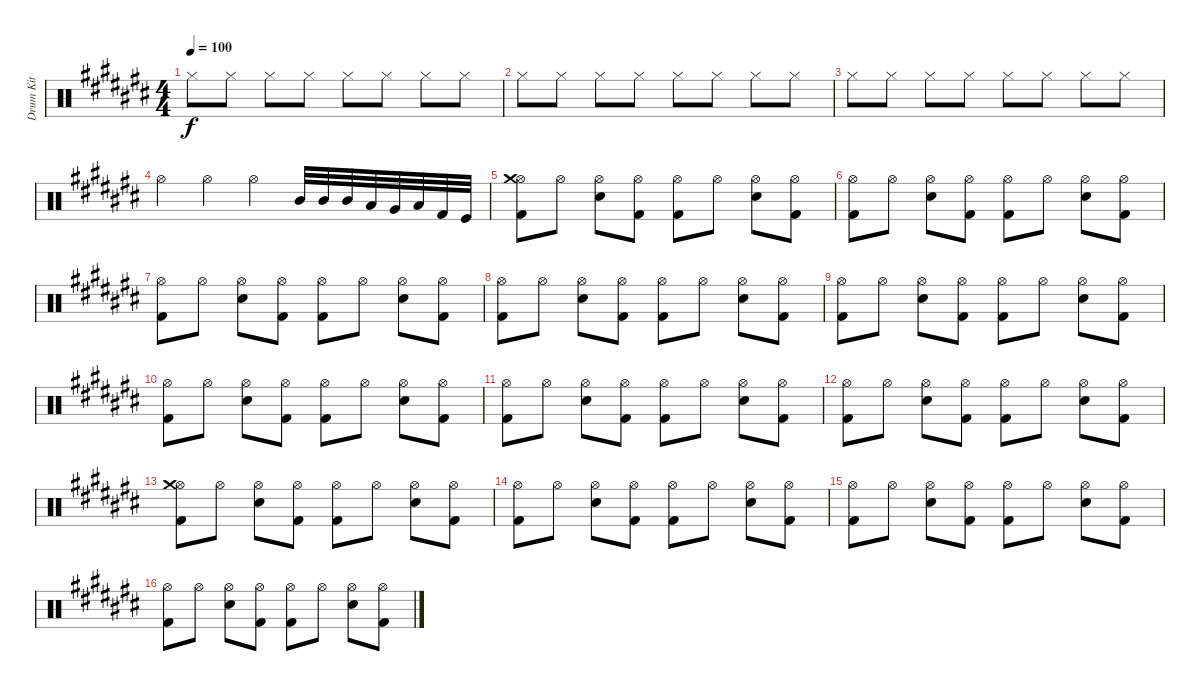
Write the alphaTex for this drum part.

\track ("Drum Kit" "Drum Kit") {instrument percussion}
\staff {score}
\articulation defaults
\ts (4 4)
\tempo 100
\clef neutral
\ks c# "Hi-Hat (closed)".8{dy f} "Hi-Hat (closed)".8 "Hi-Hat (closed)".8 "Hi-Hat (closed)".8 "Hi-Hat (closed)".8 "Hi-Hat (closed)".8 "Hi-Hat (closed)".8 "Hi-Hat (closed)".8
|
"Hi-Hat (closed)".8 "Hi-Hat (closed)".8 "Hi-Hat (closed)".8 "Hi-Hat (closed)".8 "Hi-Hat (closed)".8 "Hi-Hat (closed)".8 "Hi-Hat (closed)".8 "Hi-Hat (closed)".8 |
"Hi-Hat (closed)".8 "Hi-Hat (closed)".8 "Hi-Hat (closed)".8 "Hi-Hat (closed)".8 "Hi-Hat (closed)".8 "Hi-Hat (closed)".8 "Hi-Hat (closed)".8 "Hi-Hat (closed)".8 |
"Hi-Hat (open)".4 "Hi-Hat (open)".4 "Hi-Hat (open)".4 "Mid Tom (hit)".32 "Mid Tom (hit)".32 "Mid Tom (hit)".32 "Low Tom (hit)".32 "Very Low Tom (hit)".32 "Low Floor Tom (hit)".32 "Kick (hit) 2".32 "Kick (hit)".32 |
("Hi-Hat (open)" "Crash medium (hit)" "Kick (hit) 2").8 "Hi-Hat (open)".8 ("Hi-Hat (open)" "Snare (hit) 2").8 ("Hi-Hat (open)" "Kick (hit) 2").8 ("Hi-Hat (open)" "Kick (hit) 2").8 "Hi-Hat (open)".8 ("Hi-Hat (open)" "Snare (hit) 2").8 ("Hi-Hat (open)" "Kick (hit) 2").8 |
("Hi-Hat (open)" "Kick (hit) 2").8 "Hi-Hat (open)".8 ("Hi-Hat (open)" "Snare (hit) 2").8 ("Hi-Hat (open)" "Kick (hit) 2").8 ("Hi-Hat (open)" "Kick (hit) 2").8 "Hi-Hat (open)".8 ("Hi-Hat (open)" "Snare (hit) 2").8 ("Hi-Hat (open)" "Kick (hit) 2").8 |
("Hi-Hat (open)" "Kick (hit) 2").8 "Hi-Hat (open)".8 ("Hi-Hat (open)" "Snare (hit) 2").8 ("Hi-Hat (open)" "Kick (hit) 2").8 ("Hi-Hat (open)" "Kick (hit) 2").8 "Hi-Hat (open)".8 ("Hi-Hat (open)" "Snare (hit) 2").8 ("Hi-Hat (open)" "Kick (hit) 2").8 |
("Hi-Hat (open)" "Kick (hit) 2").8 "Hi-Hat (open)".8 ("Hi-Hat (open)" "Snare (hit) 2").8 ("Hi-Hat (open)" "Kick (hit) 2").8 ("Hi-Hat (open)" "Kick (hit) 2").8 "Hi-Hat (open)".8 ("Hi-Hat (open)" "Snare (hit) 2").8 ("Hi-Hat (open)" "Kick (hit) 2").8 |
("Hi-Hat (open)" "Kick (hit) 2").8 "Hi-Hat (open)".8 ("Hi-Hat (open)" "Snare (hit) 2").8 ("Hi-Hat (open)" "Kick (hit) 2").8 ("Hi-Hat (open)" "Kick (hit) 2").8 "Hi-Hat (open)".8 ("Hi-Hat (open)" "Snare (hit) 2").8 ("Hi-Hat (open)" "Kick (hit) 2").8 |
("Hi-Hat (open)" "Kick (hit) 2").8 "Hi-Hat (open)".8 ("Hi-Hat (open)" "Snare (hit) 2").8 ("Hi-Hat (open)" "Kick (hit) 2").8 ("Hi-Hat (open)" "Kick (hit) 2").8 "Hi-Hat (open)".8 ("Hi-Hat (open)" "Snare (hit) 2").8 ("Hi-Hat (open)" "Kick (hit) 2").8 |
("Hi-Hat (open)" "Kick (hit) 2").8 "Hi-Hat (open)".8 ("Hi-Hat (open)" "Snare (hit) 2").8 ("Hi-Hat (open)" "Kick (hit) 2").8 ("Hi-Hat (open)" "Kick (hit) 2").8 "Hi-Hat (open)".8 ("Hi-Hat (open)" "Snare (hit) 2").8 ("Hi-Hat (open)" "Kick (hit) 2").8 |
("Hi-Hat (open)" "Kick (hit) 2").8 "Hi-Hat (open)".8 ("Hi-Hat (open)" "Snare (hit) 2").8 ("Hi-Hat (open)" "Kick (hit) 2").8 ("Hi-Hat (open)" "Kick (hit) 2").8 "Hi-Hat (open)".8 ("Hi-Hat (open)" "Snare (hit) 2").8 ("Hi-Hat (open)" "Kick (hit) 2").8 |
("Hi-Hat (open)" "Crash medium (hit)" "Kick (hit) 2").8 "Hi-Hat (open)".8 ("Hi-Hat (open)" "Snare (hit) 2").8 ("Hi-Hat (open)" "Kick (hit) 2").8 ("Hi-Hat (open)" "Kick (hit) 2").8 "Hi-Hat (open)".8 ("Hi-Hat (open)" "Snare (hit) 2").8 ("Hi-Hat (open)" "Kick (hit) 2").8 |
("Hi-Hat (open)" "Kick (hit) 2").8 "Hi-Hat (open)".8 ("Hi-Hat (open)" "Snare (hit) 2").8 ("Hi-Hat (open)" "Kick (hit) 2").8 ("Hi-Hat (open)" "Kick (hit) 2").8 "Hi-Hat (open)".8 ("Hi-Hat (open)" "Snare (hit) 2").8 ("Hi-Hat (open)" "Kick (hit) 2").8 |
("Hi-Hat (open)" "Kick (hit) 2").8 "Hi-Hat (open)".8 ("Hi-Hat (open)" "Snare (hit) 2").8 ("Hi-Hat (open)" "Kick (hit) 2").8 ("Hi-Hat (open)" "Kick (hit) 2").8 "Hi-Hat (open)".8 ("Hi-Hat (open)" "Snare (hit) 2").8 ("Hi-Hat (open)" "Kick (hit) 2").8 |
("Hi-Hat (open)" "Kick (hit) 2").8 "Hi-Hat (open)".8 ("Hi-Hat (open)" "Snare (hit) 2").8 ("Hi-Hat (open)" "Kick (hit) 2").8 ("Hi-Hat (open)" "Kick (hit) 2").8 "Hi-Hat (open)".8 ("Hi-Hat (open)" "Snare (hit) 2").8 ("Hi-Hat (open)" "Kick (hit) 2").8
